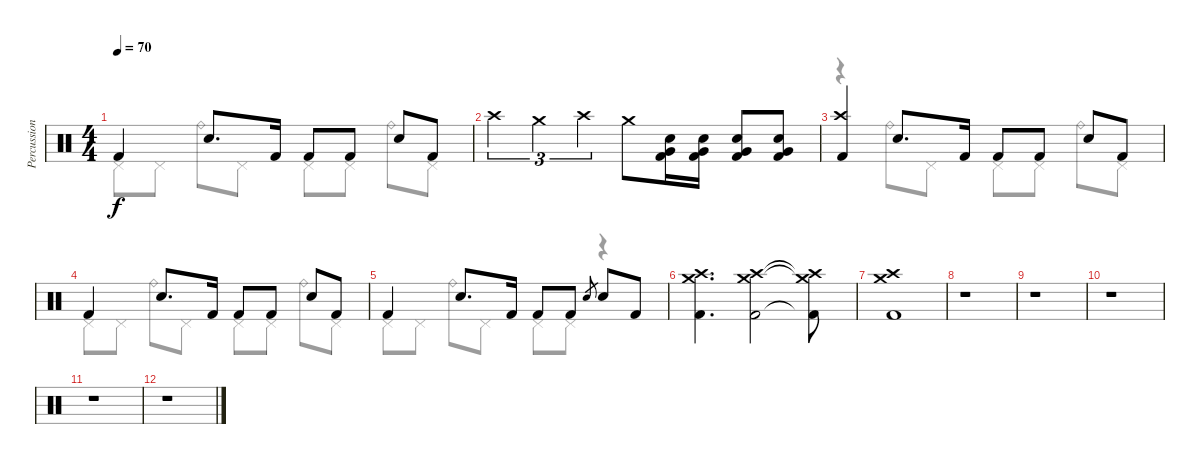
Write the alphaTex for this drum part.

\track ("Percussion" "Percussion") {instrument percussion}
\staff {score}
\articulation defaults
\voice
\ts (4 4)
\tempo 70
\clef neutral
\ks c "Kick (hit) 2".4{dy f} "Snare (hit) 2".8{d} "Kick (hit) 2".16 "Kick (hit) 2".8 "Kick (hit) 2".8 "Snare (hit) 2".8 "Kick (hit) 2".8
|
"Crash high (hit)".4{tu (3 2)} "Crash medium (hit)".4{tu (3 2)} "Crash high (hit)".4{tu (3 2)} "Crash medium (hit)".8 ("Snare (hit) 2" "Kick (hit) 2" "Very Low Tom (hit)").16 ("Snare (hit) 2" "Kick (hit) 2" "Very Low Tom (hit)").16 ("Snare (hit) 2" "Kick (hit) 2" "Very Low Tom (hit)").8 ("Snare (hit) 2" "Kick (hit) 2" "Very Low Tom (hit)").8 |
("Crash high (hit)" "Kick (hit) 2").4 "Snare (hit) 2".8{d} "Kick (hit) 2".16 "Kick (hit) 2".8 "Kick (hit) 2".8 "Snare (hit) 2".8 "Kick (hit) 2".8 |
"Kick (hit) 2".4 "Snare (hit) 2".8{d} "Kick (hit) 2".16 "Kick (hit) 2".8 "Kick (hit) 2".8 "Snare (hit) 2".8 "Kick (hit) 2".8 |
"Kick (hit) 2".4 "Snare (hit) 2".8{d} "Kick (hit) 2".16 "Kick (hit) 2".8 "Kick (hit) 2".8 "Snare (hit) 2".8{gr} "Snare (hit) 2".8 "Kick (hit) 2".8 |
("Kick (hit) 2" "Crash high (hit)" "Crash medium (hit)").4{d} ("Kick (hit) 2" "Crash high (hit)" "Crash medium (hit)").2 ("Kick (hit) 2"{t} "Crash high (hit)"{t} "Crash medium (hit)"{t}).8 |
("Kick (hit) 2" "Crash high (hit)" "Crash medium (hit)").1 |
r.1 |
r.1 |
r.1 |
r.1 |
r.1
\voice
\clef neutral
\ottava regular
\simile none
\ks c "Pedal Hi-Hat (hit)".8{dy f} "Pedal Hi-Hat (hit)".8 "Ride (bell)".8 "Pedal Hi-Hat (hit)".8 "Pedal Hi-Hat (hit)".8 "Pedal Hi-Hat (hit)".8 "Ride (bell)".8 "Pedal Hi-Hat (hit)".8
|
|
r.4 "Ride (bell)".8 "Pedal Hi-Hat (hit)".8 "Pedal Hi-Hat (hit)".8 "Pedal Hi-Hat (hit)".8 "Ride (bell)".8 "Pedal Hi-Hat (hit)".8 |
"Pedal Hi-Hat (hit)".8 "Pedal Hi-Hat (hit)".8 "Ride (bell)".8 "Pedal Hi-Hat (hit)".8 "Pedal Hi-Hat (hit)".8 "Pedal Hi-Hat (hit)".8 "Ride (bell)".8 "Pedal Hi-Hat (hit)".8 |
"Pedal Hi-Hat (hit)".8 "Pedal Hi-Hat (hit)".8 "Ride (bell)".8 "Pedal Hi-Hat (hit)".8 "Pedal Hi-Hat (hit)".8 "Pedal Hi-Hat (hit)".8 r.4 |
|
|
|
|
|
|
